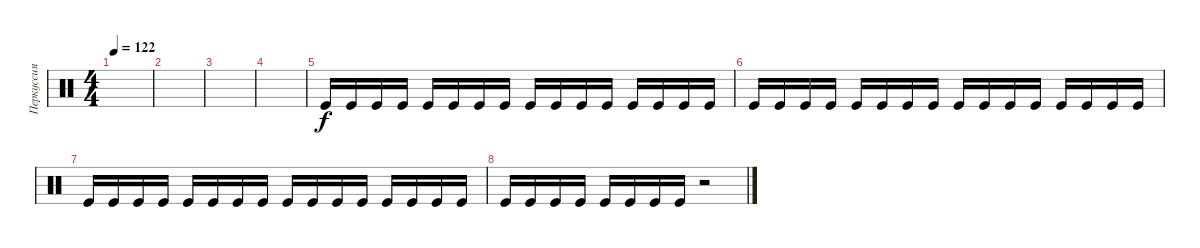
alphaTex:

\track ("Перкуссия" "Перкуссия") {instrument percussion}
\staff {score}
\articulation defaults
\ts (4 4)
\tempo 122
\clef neutral
\ks c
|
|
|
|
"Kick (hit)".16 "Kick (hit)".16 "Kick (hit)".16 "Kick (hit)".16 "Kick (hit)".16 "Kick (hit)".16 "Kick (hit)".16 "Kick (hit)".16 "Kick (hit)".16 "Kick (hit)".16 "Kick (hit)".16 "Kick (hit)".16 "Kick (hit)".16 "Kick (hit)".16 "Kick (hit)".16 "Kick (hit)".16 |
"Kick (hit)".16 "Kick (hit)".16 "Kick (hit)".16 "Kick (hit)".16 "Kick (hit)".16 "Kick (hit)".16 "Kick (hit)".16 "Kick (hit)".16 "Kick (hit)".16 "Kick (hit)".16 "Kick (hit)".16 "Kick (hit)".16 "Kick (hit)".16 "Kick (hit)".16 "Kick (hit)".16 "Kick (hit)".16 |
"Kick (hit)".16 "Kick (hit)".16 "Kick (hit)".16 "Kick (hit)".16 "Kick (hit)".16 "Kick (hit)".16 "Kick (hit)".16 "Kick (hit)".16 "Kick (hit)".16 "Kick (hit)".16 "Kick (hit)".16 "Kick (hit)".16 "Kick (hit)".16 "Kick (hit)".16 "Kick (hit)".16 "Kick (hit)".16 |
"Kick (hit)".16 "Kick (hit)".16 "Kick (hit)".16 "Kick (hit)".16 "Kick (hit)".16 "Kick (hit)".16 "Kick (hit)".16 "Kick (hit)".16 r.2
